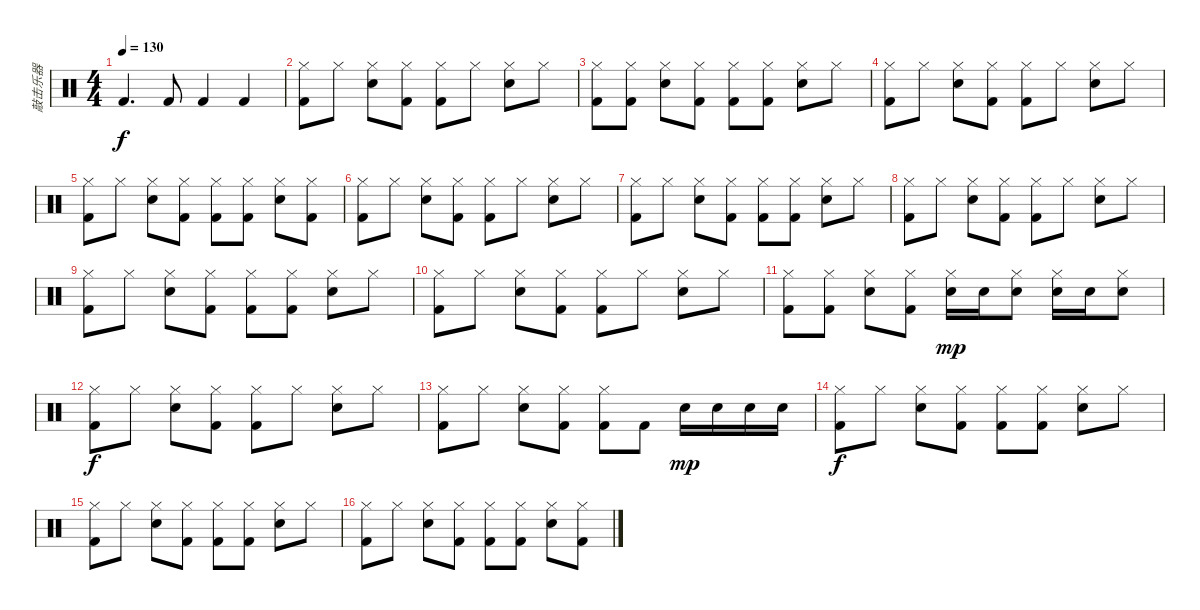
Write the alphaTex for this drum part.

\track ("敲击乐器" "敲击乐器") {instrument percussion}
\staff {score}
\articulation defaults
\ts (4 4)
\tempo 130
\clef neutral
\ks c "Kick (hit) 2".4{d dy f} "Kick (hit) 2".8 "Kick (hit) 2".4 "Kick (hit) 2".4
|
("Hi-Hat (closed)" "Kick (hit) 2").8 "Hi-Hat (closed)".8 ("Hi-Hat (closed)" "Electric Snare (hit)").8 ("Hi-Hat (closed)" "Kick (hit) 2").8 ("Hi-Hat (closed)" "Kick (hit) 2").8 "Hi-Hat (closed)".8 ("Hi-Hat (closed)" "Electric Snare (hit)").8 "Hi-Hat (closed)".8 |
("Hi-Hat (closed)" "Kick (hit) 2").8 ("Hi-Hat (closed)" "Kick (hit) 2").8 ("Hi-Hat (closed)" "Electric Snare (hit)").8 ("Hi-Hat (closed)" "Kick (hit) 2").8 ("Hi-Hat (closed)" "Kick (hit) 2").8 ("Hi-Hat (closed)" "Kick (hit) 2").8 ("Hi-Hat (closed)" "Electric Snare (hit)").8 "Hi-Hat (closed)".8 |
("Hi-Hat (closed)" "Kick (hit) 2").8 "Hi-Hat (closed)".8 ("Hi-Hat (closed)" "Electric Snare (hit)").8 ("Hi-Hat (closed)" "Kick (hit) 2").8 ("Hi-Hat (closed)" "Kick (hit) 2").8 "Hi-Hat (closed)".8 ("Hi-Hat (closed)" "Electric Snare (hit)").8 "Hi-Hat (closed)".8 |
("Hi-Hat (closed)" "Kick (hit) 2").8 "Hi-Hat (closed)".8 ("Hi-Hat (closed)" "Electric Snare (hit)").8 ("Hi-Hat (closed)" "Kick (hit) 2").8 ("Hi-Hat (closed)" "Kick (hit) 2").8 ("Hi-Hat (closed)" "Kick (hit) 2").8 ("Hi-Hat (closed)" "Electric Snare (hit)").8 ("Hi-Hat (closed)" "Kick (hit) 2").8 |
("Hi-Hat (closed)" "Kick (hit) 2").8 "Hi-Hat (closed)".8 ("Hi-Hat (closed)" "Electric Snare (hit)").8 ("Hi-Hat (closed)" "Kick (hit) 2").8 ("Hi-Hat (closed)" "Kick (hit) 2").8 "Hi-Hat (closed)".8 ("Hi-Hat (closed)" "Electric Snare (hit)").8 "Hi-Hat (closed)".8 |
("Hi-Hat (closed)" "Kick (hit) 2").8 "Hi-Hat (closed)".8 ("Hi-Hat (closed)" "Electric Snare (hit)").8 ("Hi-Hat (closed)" "Kick (hit) 2").8 ("Hi-Hat (closed)" "Kick (hit) 2").8 ("Hi-Hat (closed)" "Kick (hit) 2").8 ("Hi-Hat (closed)" "Electric Snare (hit)").8 "Hi-Hat (closed)".8 |
("Hi-Hat (closed)" "Kick (hit) 2").8 "Hi-Hat (closed)".8 ("Hi-Hat (closed)" "Electric Snare (hit)").8 ("Hi-Hat (closed)" "Kick (hit) 2").8 ("Hi-Hat (closed)" "Kick (hit) 2").8 "Hi-Hat (closed)".8 ("Hi-Hat (closed)" "Electric Snare (hit)").8 "Hi-Hat (closed)".8 |
("Hi-Hat (closed)" "Kick (hit) 2").8 "Hi-Hat (closed)".8 ("Hi-Hat (closed)" "Electric Snare (hit)").8 ("Hi-Hat (closed)" "Kick (hit) 2").8 ("Hi-Hat (closed)" "Kick (hit) 2").8 ("Hi-Hat (closed)" "Kick (hit) 2").8 ("Hi-Hat (closed)" "Electric Snare (hit)").8 "Hi-Hat (closed)".8 |
("Hi-Hat (closed)" "Kick (hit) 2").8 "Hi-Hat (closed)".8 ("Hi-Hat (closed)" "Electric Snare (hit)").8 ("Hi-Hat (closed)" "Kick (hit) 2").8 ("Hi-Hat (closed)" "Kick (hit) 2").8 "Hi-Hat (closed)".8 ("Hi-Hat (closed)" "Electric Snare (hit)").8 "Hi-Hat (closed)".8 |
("Hi-Hat (closed)" "Kick (hit) 2").8 ("Hi-Hat (closed)" "Kick (hit) 2").8 ("Hi-Hat (closed)" "Electric Snare (hit)").8 ("Hi-Hat (closed)" "Kick (hit) 2").8 ("Hi-Hat (closed)" "Electric Snare (hit)").16{dy mp} "Electric Snare (hit)".16 ("Hi-Hat (closed)" "Electric Snare (hit)").8 ("Hi-Hat (closed)" "Electric Snare (hit)").16 "Electric Snare (hit)".16 ("Hi-Hat (closed)" "Electric Snare (hit)").8 |
("Hi-Hat (closed)" "Kick (hit) 2").8{dy f} "Hi-Hat (closed)".8 ("Hi-Hat (closed)" "Electric Snare (hit)").8 ("Hi-Hat (closed)" "Kick (hit) 2").8 ("Hi-Hat (closed)" "Kick (hit) 2").8 "Hi-Hat (closed)".8 ("Hi-Hat (closed)" "Electric Snare (hit)").8 "Hi-Hat (closed)".8 |
("Hi-Hat (closed)" "Kick (hit) 2").8 "Hi-Hat (closed)".8 ("Hi-Hat (closed)" "Electric Snare (hit)").8 ("Hi-Hat (closed)" "Kick (hit) 2").8 ("Hi-Hat (closed)" "Kick (hit) 2").8 "Kick (hit) 2".8 "Electric Snare (hit)".16{dy mp} "Electric Snare (hit)".16 "Electric Snare (hit)".16 "Electric Snare (hit)".16 |
("Hi-Hat (closed)" "Kick (hit) 2").8{dy f} "Hi-Hat (closed)".8 ("Hi-Hat (closed)" "Electric Snare (hit)").8 ("Hi-Hat (closed)" "Kick (hit) 2").8 ("Hi-Hat (closed)" "Kick (hit) 2").8 ("Hi-Hat (closed)" "Kick (hit) 2").8 ("Hi-Hat (closed)" "Electric Snare (hit)").8 "Hi-Hat (closed)".8 |
("Hi-Hat (closed)" "Kick (hit) 2").8 "Hi-Hat (closed)".8 ("Hi-Hat (closed)" "Electric Snare (hit)").8 ("Hi-Hat (closed)" "Kick (hit) 2").8 ("Hi-Hat (closed)" "Kick (hit) 2").8 ("Hi-Hat (closed)" "Kick (hit) 2").8 ("Hi-Hat (closed)" "Electric Snare (hit)").8 "Hi-Hat (closed)".8 |
("Hi-Hat (closed)" "Kick (hit) 2").8 "Hi-Hat (closed)".8 ("Hi-Hat (closed)" "Electric Snare (hit)").8 ("Hi-Hat (closed)" "Kick (hit) 2").8 ("Hi-Hat (closed)" "Kick (hit) 2").8 ("Hi-Hat (closed)" "Kick (hit) 2").8 ("Hi-Hat (closed)" "Electric Snare (hit)").8 ("Hi-Hat (closed)" "Kick (hit) 2").8
